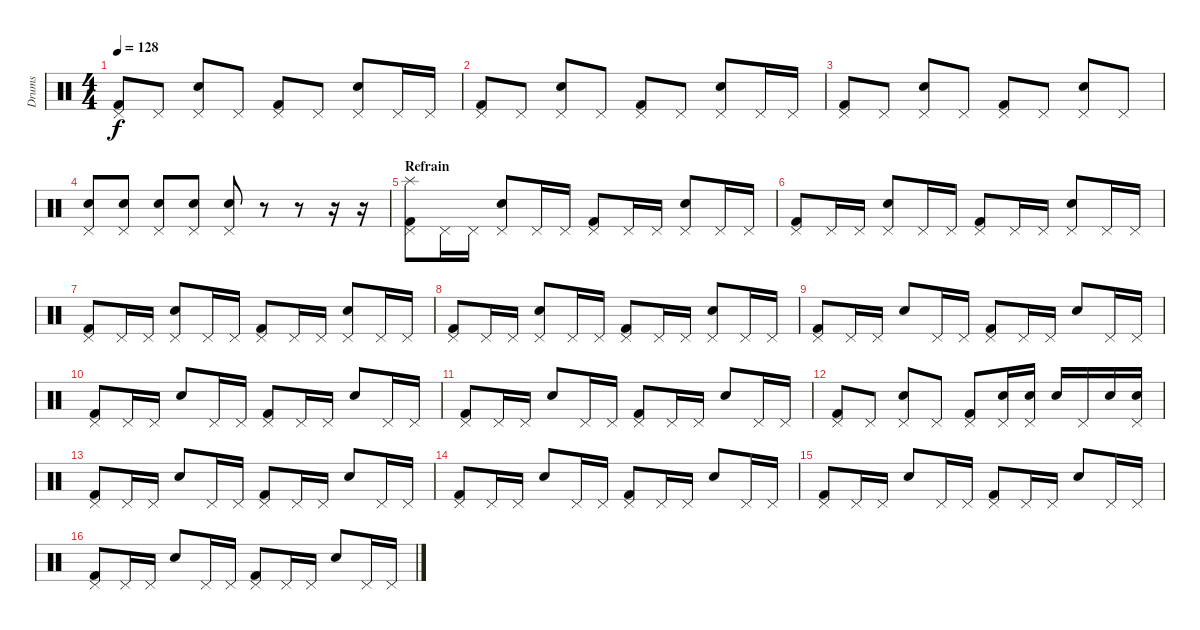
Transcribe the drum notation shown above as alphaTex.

\track ("Drums" "Drums") {instrument percussion}
\staff {score}
\articulation defaults
\ts (4 4)
\tempo 128
\clef neutral
\ks c
("Pedal Hi-Hat (hit)" "Kick (hit) 2").8{dy f} "Pedal Hi-Hat (hit)".8 ("Pedal Hi-Hat (hit)" "Snare (hit) 2").8 "Pedal Hi-Hat (hit)".8 ("Pedal Hi-Hat (hit)" "Kick (hit) 2").8 "Pedal Hi-Hat (hit)".8 ("Pedal Hi-Hat (hit)" "Snare (hit) 2").8 "Pedal Hi-Hat (hit)".16 "Pedal Hi-Hat (hit)".16 |
("Pedal Hi-Hat (hit)" "Kick (hit) 2").8 "Pedal Hi-Hat (hit)".8 ("Pedal Hi-Hat (hit)" "Snare (hit) 2").8 "Pedal Hi-Hat (hit)".8 ("Pedal Hi-Hat (hit)" "Kick (hit) 2").8 "Pedal Hi-Hat (hit)".8 ("Pedal Hi-Hat (hit)" "Snare (hit) 2").8 "Pedal Hi-Hat (hit)".16 "Pedal Hi-Hat (hit)".16 |
("Pedal Hi-Hat (hit)" "Kick (hit) 2").8 "Pedal Hi-Hat (hit)".8 ("Pedal Hi-Hat (hit)" "Snare (hit) 2").8 "Pedal Hi-Hat (hit)".8 ("Pedal Hi-Hat (hit)" "Kick (hit) 2").8 "Pedal Hi-Hat (hit)".8 ("Pedal Hi-Hat (hit)" "Snare (hit) 2").8 "Pedal Hi-Hat (hit)".8 |
("Pedal Hi-Hat (hit)" "Snare (hit) 2").8 ("Pedal Hi-Hat (hit)" "Snare (hit) 2").8 ("Pedal Hi-Hat (hit)" "Snare (hit) 2").8 ("Pedal Hi-Hat (hit)" "Snare (hit) 2").8 ("Pedal Hi-Hat (hit)" "Snare (hit) 2").8 r.8 r.8 r.16 r.16 |
\section ("" "Refrain")
("Splash (hit)" "Pedal Hi-Hat (hit)" "Kick (hit) 2").8{volume 11} "Pedal Hi-Hat (hit)".16 "Pedal Hi-Hat (hit)".16 ("Pedal Hi-Hat (hit)" "Snare (hit) 2").8 "Pedal Hi-Hat (hit)".16 "Pedal Hi-Hat (hit)".16 ("Pedal Hi-Hat (hit)" "Kick (hit) 2").8 "Pedal Hi-Hat (hit)".16 "Pedal Hi-Hat (hit)".16 ("Pedal Hi-Hat (hit)" "Snare (hit) 2").8 "Pedal Hi-Hat (hit)".16 "Pedal Hi-Hat (hit)".16 |
("Pedal Hi-Hat (hit)" "Kick (hit) 2").8 "Pedal Hi-Hat (hit)".16 "Pedal Hi-Hat (hit)".16 ("Pedal Hi-Hat (hit)" "Snare (hit) 2").8 "Pedal Hi-Hat (hit)".16 "Pedal Hi-Hat (hit)".16 ("Pedal Hi-Hat (hit)" "Kick (hit) 2").8 "Pedal Hi-Hat (hit)".16 "Pedal Hi-Hat (hit)".16 ("Pedal Hi-Hat (hit)" "Snare (hit) 2").8 "Pedal Hi-Hat (hit)".16 "Pedal Hi-Hat (hit)".16 |
("Pedal Hi-Hat (hit)" "Kick (hit) 2").8 "Pedal Hi-Hat (hit)".16 "Pedal Hi-Hat (hit)".16 ("Pedal Hi-Hat (hit)" "Snare (hit) 2").8 "Pedal Hi-Hat (hit)".16 "Pedal Hi-Hat (hit)".16 ("Pedal Hi-Hat (hit)" "Kick (hit) 2").8 "Pedal Hi-Hat (hit)".16 "Pedal Hi-Hat (hit)".16 ("Pedal Hi-Hat (hit)" "Snare (hit) 2").8 "Pedal Hi-Hat (hit)".16 "Pedal Hi-Hat (hit)".16 |
("Pedal Hi-Hat (hit)" "Kick (hit) 2").8 "Pedal Hi-Hat (hit)".16 "Pedal Hi-Hat (hit)".16 ("Pedal Hi-Hat (hit)" "Snare (hit) 2").8 "Pedal Hi-Hat (hit)".16 "Pedal Hi-Hat (hit)".16 ("Pedal Hi-Hat (hit)" "Kick (hit) 2").8 "Pedal Hi-Hat (hit)".16 "Pedal Hi-Hat (hit)".16 ("Pedal Hi-Hat (hit)" "Snare (hit) 2").8 "Pedal Hi-Hat (hit)".16 "Pedal Hi-Hat (hit)".16 |
("Pedal Hi-Hat (hit)" "Kick (hit) 2").8 "Pedal Hi-Hat (hit)".16 "Pedal Hi-Hat (hit)".16 "Snare (hit) 2".8 "Pedal Hi-Hat (hit)".16 "Pedal Hi-Hat (hit)".16 ("Pedal Hi-Hat (hit)" "Kick (hit) 2").8 "Pedal Hi-Hat (hit)".16 "Pedal Hi-Hat (hit)".16 "Snare (hit) 2".8 "Pedal Hi-Hat (hit)".16 "Pedal Hi-Hat (hit)".16 |
("Pedal Hi-Hat (hit)" "Kick (hit) 2").8 "Pedal Hi-Hat (hit)".16 "Pedal Hi-Hat (hit)".16 "Snare (hit) 2".8 "Pedal Hi-Hat (hit)".16 "Pedal Hi-Hat (hit)".16 ("Pedal Hi-Hat (hit)" "Kick (hit) 2").8 "Pedal Hi-Hat (hit)".16 "Pedal Hi-Hat (hit)".16 "Snare (hit) 2".8 "Pedal Hi-Hat (hit)".16 "Pedal Hi-Hat (hit)".16 |
("Pedal Hi-Hat (hit)" "Kick (hit) 2").8 "Pedal Hi-Hat (hit)".16 "Pedal Hi-Hat (hit)".16 "Snare (hit) 2".8 "Pedal Hi-Hat (hit)".16 "Pedal Hi-Hat (hit)".16 ("Pedal Hi-Hat (hit)" "Kick (hit) 2").8 "Pedal Hi-Hat (hit)".16 "Pedal Hi-Hat (hit)".16 "Snare (hit) 2".8 "Pedal Hi-Hat (hit)".16 "Pedal Hi-Hat (hit)".16 |
("Pedal Hi-Hat (hit)" "Kick (hit) 2").8{volume 12} "Pedal Hi-Hat (hit)".8 ("Pedal Hi-Hat (hit)" "Snare (hit) 2").8 "Pedal Hi-Hat (hit)".8 ("Pedal Hi-Hat (hit)" "Kick (hit) 2").8 ("Pedal Hi-Hat (hit)" "Snare (hit) 2").16 ("Pedal Hi-Hat (hit)" "Snare (hit) 2").16 "Snare (hit) 2".16 "Pedal Hi-Hat (hit)".16 "Snare (hit) 2".16 ("Pedal Hi-Hat (hit)" "Snare (hit) 2").16 |
("Pedal Hi-Hat (hit)" "Kick (hit) 2").8{volume 11} "Pedal Hi-Hat (hit)".16 "Pedal Hi-Hat (hit)".16 "Snare (hit) 2".8 "Pedal Hi-Hat (hit)".16 "Pedal Hi-Hat (hit)".16 ("Pedal Hi-Hat (hit)" "Kick (hit) 2").8 "Pedal Hi-Hat (hit)".16 "Pedal Hi-Hat (hit)".16 "Snare (hit) 2".8 "Pedal Hi-Hat (hit)".16 "Pedal Hi-Hat (hit)".16 |
("Pedal Hi-Hat (hit)" "Kick (hit) 2").8 "Pedal Hi-Hat (hit)".16 "Pedal Hi-Hat (hit)".16 "Snare (hit) 2".8 "Pedal Hi-Hat (hit)".16 "Pedal Hi-Hat (hit)".16 ("Pedal Hi-Hat (hit)" "Kick (hit) 2").8 "Pedal Hi-Hat (hit)".16 "Pedal Hi-Hat (hit)".16 "Snare (hit) 2".8 "Pedal Hi-Hat (hit)".16 "Pedal Hi-Hat (hit)".16 |
("Pedal Hi-Hat (hit)" "Kick (hit) 2").8 "Pedal Hi-Hat (hit)".16 "Pedal Hi-Hat (hit)".16 "Snare (hit) 2".8 "Pedal Hi-Hat (hit)".16 "Pedal Hi-Hat (hit)".16 ("Pedal Hi-Hat (hit)" "Kick (hit) 2").8 "Pedal Hi-Hat (hit)".16 "Pedal Hi-Hat (hit)".16 "Snare (hit) 2".8 "Pedal Hi-Hat (hit)".16 "Pedal Hi-Hat (hit)".16 |
("Pedal Hi-Hat (hit)" "Kick (hit) 2").8 "Pedal Hi-Hat (hit)".16 "Pedal Hi-Hat (hit)".16 "Snare (hit) 2".8 "Pedal Hi-Hat (hit)".16 "Pedal Hi-Hat (hit)".16 ("Pedal Hi-Hat (hit)" "Kick (hit) 2").8 "Pedal Hi-Hat (hit)".16 "Pedal Hi-Hat (hit)".16 "Snare (hit) 2".8 "Pedal Hi-Hat (hit)".16 "Pedal Hi-Hat (hit)".16
